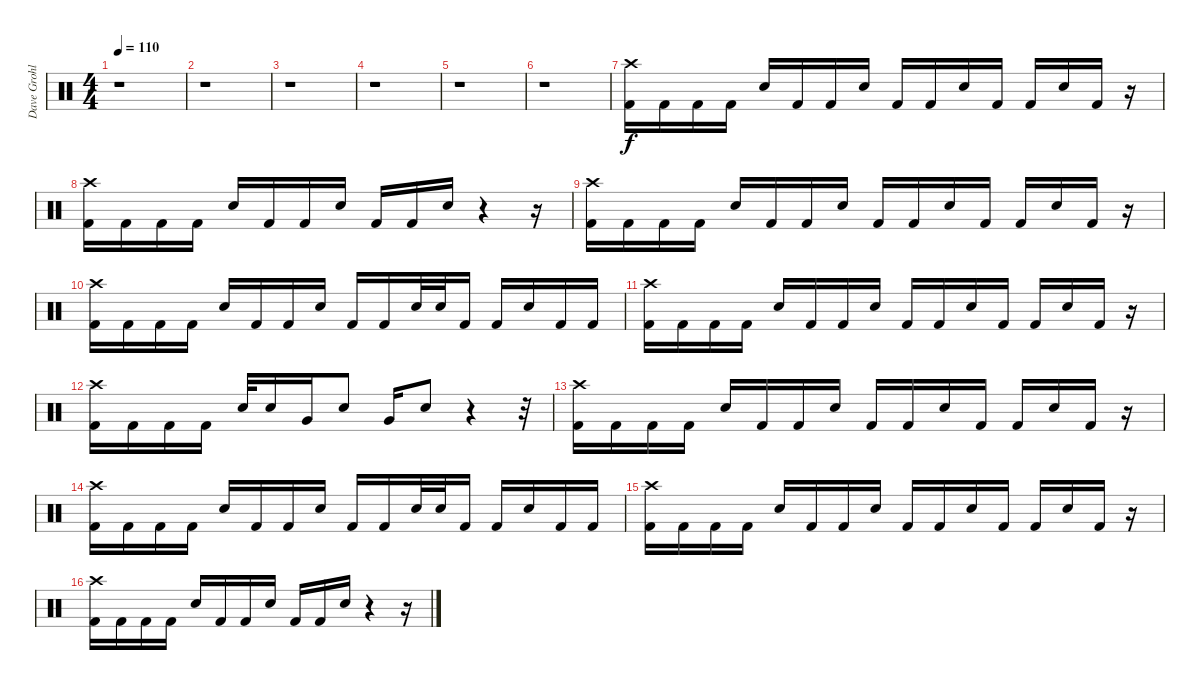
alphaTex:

\track ("Dave Grohl" "Dave Grohl") {instrument percussion}
\staff {score}
\articulation defaults
\ts (4 4)
\tempo 110
\clef neutral
\ks c
r.1{dy mp} |
r.1 |
r.1 |
r.1 |
r.1 |
r.1 |
("Crash high (hit)" "Kick (hit) 2").16{dy f} "Kick (hit) 2".16 "Kick (hit) 2".16 "Kick (hit) 2".16 "Snare (hit) 2".16 "Kick (hit) 2".16 "Kick (hit) 2".16 "Snare (hit) 2".16 "Kick (hit) 2".16 "Kick (hit) 2".16 "Snare (hit) 2".16 "Kick (hit) 2".16 "Kick (hit) 2".16 "Snare (hit) 2".16 "Kick (hit) 2".16 r.16 |
("Crash high (hit)" "Kick (hit) 2").16 "Kick (hit) 2".16 "Kick (hit) 2".16 "Kick (hit) 2".16 "Snare (hit) 2".16 "Kick (hit) 2".16 "Kick (hit) 2".16 "Snare (hit) 2".16 "Kick (hit) 2".16 "Kick (hit) 2".16 "Snare (hit) 2".16 r.4 r.16 |
("Crash high (hit)" "Kick (hit) 2").16 "Kick (hit) 2".16 "Kick (hit) 2".16 "Kick (hit) 2".16 "Snare (hit) 2".16 "Kick (hit) 2".16 "Kick (hit) 2".16 "Snare (hit) 2".16 "Kick (hit) 2".16 "Kick (hit) 2".16 "Snare (hit) 2".16 "Kick (hit) 2".16 "Kick (hit) 2".16 "Snare (hit) 2".16 "Kick (hit) 2".16 r.16 |
("Crash high (hit)" "Kick (hit) 2").16 "Kick (hit) 2".16 "Kick (hit) 2".16 "Kick (hit) 2".16 "Snare (hit) 2".16 "Kick (hit) 2".16 "Kick (hit) 2".16 "Snare (hit) 2".16 "Kick (hit) 2".16 "Kick (hit) 2".16 "Snare (hit) 2".32 "Snare (hit) 2".32 "Kick (hit) 2".16 "Kick (hit) 2".16 "Snare (hit) 2".16 "Kick (hit) 2".16 "Kick (hit) 2".16 |
("Crash high (hit)" "Kick (hit) 2").16 "Kick (hit) 2".16 "Kick (hit) 2".16 "Kick (hit) 2".16 "Snare (hit) 2".16 "Kick (hit) 2".16 "Kick (hit) 2".16 "Snare (hit) 2".16 "Kick (hit) 2".16 "Kick (hit) 2".16 "Snare (hit) 2".16 "Kick (hit) 2".16 "Kick (hit) 2".16 "Snare (hit) 2".16 "Kick (hit) 2".16 r.16 |
("Crash high (hit)" "Kick (hit) 2").16 "Kick (hit) 2".16 "Kick (hit) 2".16 "Kick (hit) 2".16 "Snare (hit) 2".32 "Snare (hit) 2".16 "Very Low Tom (hit)".16 "Snare (hit) 2".8 "Very Low Tom (hit)".16 "Snare (hit) 2".8 r.4 r.32 |
("Crash high (hit)" "Kick (hit) 2").16 "Kick (hit) 2".16 "Kick (hit) 2".16 "Kick (hit) 2".16 "Snare (hit) 2".16 "Kick (hit) 2".16 "Kick (hit) 2".16 "Snare (hit) 2".16 "Kick (hit) 2".16 "Kick (hit) 2".16 "Snare (hit) 2".16 "Kick (hit) 2".16 "Kick (hit) 2".16 "Snare (hit) 2".16 "Kick (hit) 2".16 r.16 |
("Crash high (hit)" "Kick (hit) 2").16 "Kick (hit) 2".16 "Kick (hit) 2".16 "Kick (hit) 2".16 "Snare (hit) 2".16 "Kick (hit) 2".16 "Kick (hit) 2".16 "Snare (hit) 2".16 "Kick (hit) 2".16 "Kick (hit) 2".16 "Snare (hit) 2".32 "Snare (hit) 2".32 "Kick (hit) 2".16 "Kick (hit) 2".16 "Snare (hit) 2".16 "Kick (hit) 2".16 "Kick (hit) 2".16 |
("Crash high (hit)" "Kick (hit) 2").16 "Kick (hit) 2".16 "Kick (hit) 2".16 "Kick (hit) 2".16 "Snare (hit) 2".16 "Kick (hit) 2".16 "Kick (hit) 2".16 "Snare (hit) 2".16 "Kick (hit) 2".16 "Kick (hit) 2".16 "Snare (hit) 2".16 "Kick (hit) 2".16 "Kick (hit) 2".16 "Snare (hit) 2".16 "Kick (hit) 2".16 r.16 |
("Crash high (hit)" "Kick (hit) 2").16 "Kick (hit) 2".16 "Kick (hit) 2".16 "Kick (hit) 2".16 "Snare (hit) 2".16 "Kick (hit) 2".16 "Kick (hit) 2".16 "Snare (hit) 2".16 "Kick (hit) 2".16 "Kick (hit) 2".16 "Snare (hit) 2".16 r.4 r.16
